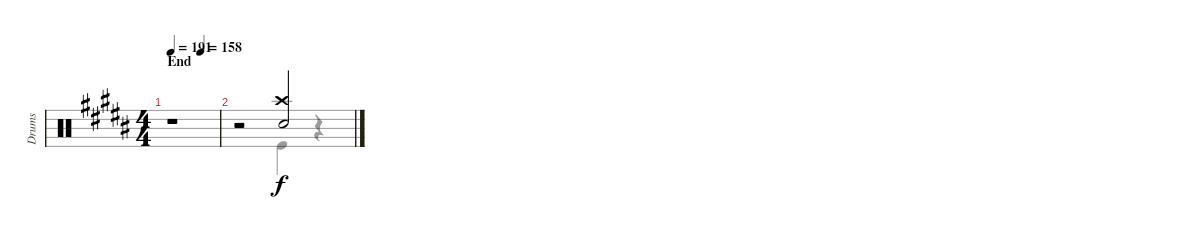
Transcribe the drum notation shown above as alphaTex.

\track ("Drums" "Drums") {instrument percussion}
\staff {score}
\articulation defaults
\voice
\ts (4 4)
\section ("" "End")
\tempo 191
\tempo (158 0.625)
\clef neutral
\ks b
r.1{dy f} |
r.2 ("Crash high (hit)" "Snare (hit) 2").2
\voice
\clef neutral
\ottava regular
\simile none
\ks b
r.1{dy f} |
r.2 "Kick (hit)".4 r.4
